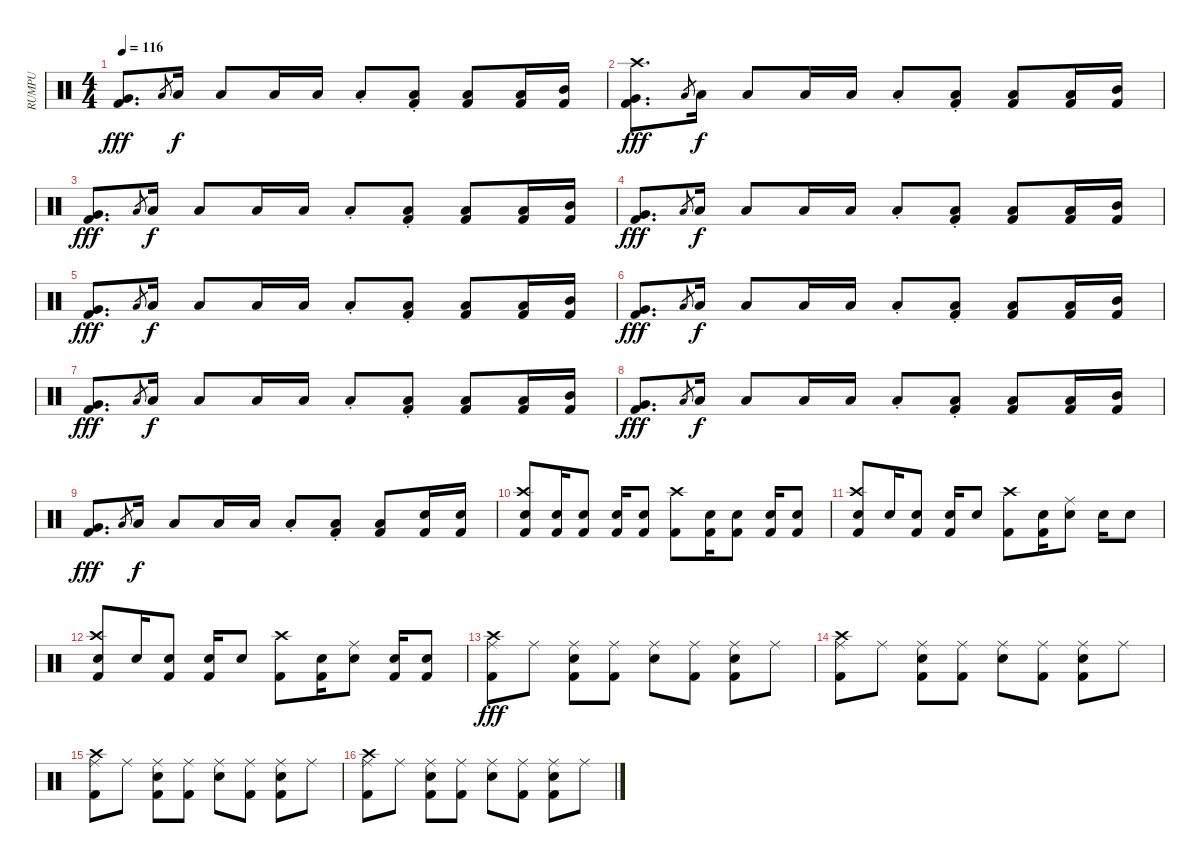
\track ("RUMPU" "RUMPU") {instrument percussion}
\staff {score}
\articulation defaults
\ts (4 4)
\tempo 116
\clef neutral
\ks c
("Very Low Tom (hit)" "Kick (hit) 2").8{d dy fff} "Low Floor Tom (hit)".8{gr} "Low Floor Tom (hit)".16{dy f} "Low Floor Tom (hit)".8 "Low Floor Tom (hit)".16 "Low Floor Tom (hit)".16 "Low Floor Tom (hit)"{st}.8 ("Low Floor Tom (hit)"{st} "Kick (hit) 2").8 ("Low Floor Tom (hit)" "Kick (hit) 2").8 ("Low Tom (hit)" "Kick (hit) 2").16 ("Mid Tom (hit)" "Kick (hit) 2").16 |
("Very Low Tom (hit)" "Kick (hit) 2" "Crash high (hit)").8{d dy fff} "Low Floor Tom (hit)".8{gr} "Low Floor Tom (hit)".16{dy f} "Low Floor Tom (hit)".8 "Low Floor Tom (hit)".16 "Low Floor Tom (hit)".16 "Low Floor Tom (hit)"{st}.8 ("Low Floor Tom (hit)"{st} "Kick (hit) 2").8 ("Low Floor Tom (hit)" "Kick (hit) 2").8 ("Low Tom (hit)" "Kick (hit) 2").16 ("Mid Tom (hit)" "Kick (hit) 2").16 |
("Very Low Tom (hit)" "Kick (hit) 2").8{d dy fff} "Low Floor Tom (hit)".8{gr} "Low Floor Tom (hit)".16{dy f} "Low Floor Tom (hit)".8 "Low Floor Tom (hit)".16 "Low Floor Tom (hit)".16 "Low Floor Tom (hit)"{st}.8 ("Low Floor Tom (hit)"{st} "Kick (hit) 2").8 ("Low Floor Tom (hit)" "Kick (hit) 2").8 ("Low Tom (hit)" "Kick (hit) 2").16 ("Mid Tom (hit)" "Kick (hit) 2").16 |
("Very Low Tom (hit)" "Kick (hit) 2").8{d dy fff} "Low Floor Tom (hit)".8{gr} "Low Floor Tom (hit)".16{dy f} "Low Floor Tom (hit)".8 "Low Floor Tom (hit)".16 "Low Floor Tom (hit)".16 "Low Floor Tom (hit)"{st}.8 ("Low Floor Tom (hit)"{st} "Kick (hit) 2").8 ("Low Floor Tom (hit)" "Kick (hit) 2").8 ("Low Tom (hit)" "Kick (hit) 2").16 ("Mid Tom (hit)" "Kick (hit) 2").16 |
("Very Low Tom (hit)" "Kick (hit) 2").8{d dy fff} "Low Floor Tom (hit)".8{gr} "Low Floor Tom (hit)".16{dy f} "Low Floor Tom (hit)".8 "Low Floor Tom (hit)".16 "Low Floor Tom (hit)".16 "Low Floor Tom (hit)"{st}.8 ("Low Floor Tom (hit)"{st} "Kick (hit) 2").8 ("Low Floor Tom (hit)" "Kick (hit) 2").8 ("Low Tom (hit)" "Kick (hit) 2").16 ("Mid Tom (hit)" "Kick (hit) 2").16 |
("Very Low Tom (hit)" "Kick (hit) 2").8{d dy fff} "Low Floor Tom (hit)".8{gr} "Low Floor Tom (hit)".16{dy f} "Low Floor Tom (hit)".8 "Low Floor Tom (hit)".16 "Low Floor Tom (hit)".16 "Low Floor Tom (hit)"{st}.8 ("Low Floor Tom (hit)"{st} "Kick (hit) 2").8 ("Low Floor Tom (hit)" "Kick (hit) 2").8 ("Low Tom (hit)" "Kick (hit) 2").16 ("Mid Tom (hit)" "Kick (hit) 2").16 |
("Very Low Tom (hit)" "Kick (hit) 2").8{d dy fff} "Low Floor Tom (hit)".8{gr} "Low Floor Tom (hit)".16{dy f} "Low Floor Tom (hit)".8 "Low Floor Tom (hit)".16 "Low Floor Tom (hit)".16 "Low Floor Tom (hit)"{st}.8 ("Low Floor Tom (hit)"{st} "Kick (hit) 2").8 ("Low Floor Tom (hit)" "Kick (hit) 2").8 ("Low Tom (hit)" "Kick (hit) 2").16 ("Mid Tom (hit)" "Kick (hit) 2").16 |
("Very Low Tom (hit)" "Kick (hit) 2").8{d dy fff} "Low Floor Tom (hit)".8{gr} "Low Floor Tom (hit)".16{dy f} "Low Floor Tom (hit)".8 "Low Floor Tom (hit)".16 "Low Floor Tom (hit)".16 "Low Floor Tom (hit)"{st}.8 ("Low Floor Tom (hit)"{st} "Kick (hit) 2").8 ("Low Floor Tom (hit)" "Kick (hit) 2").8 ("Low Tom (hit)" "Kick (hit) 2").16 ("Mid Tom (hit)" "Kick (hit) 2").16 |
("Very Low Tom (hit)" "Kick (hit) 2").8{d dy fff} "Low Floor Tom (hit)".8{gr} "Low Floor Tom (hit)".16{dy f} "Low Floor Tom (hit)".8 "Low Floor Tom (hit)".16 "Low Floor Tom (hit)".16 "Low Floor Tom (hit)"{st}.8 ("Low Floor Tom (hit)"{st} "Kick (hit) 2").8 ("Low Floor Tom (hit)" "Kick (hit) 2").8 ("Electric Snare (hit)" "Kick (hit) 2").16 ("Electric Snare (hit)" "Kick (hit) 2").16 |
("Electric Snare (hit)" "Crash high (hit)" "Kick (hit) 2").8 ("Electric Snare (hit)" "Kick (hit) 2").16 ("Electric Snare (hit)" "Kick (hit) 2").8 ("Electric Snare (hit)" "Kick (hit) 2").16 ("Electric Snare (hit)" "Kick (hit) 2").8 ("Crash high (hit)" "Kick (hit) 2").8 ("Electric Snare (hit)" "Kick (hit) 2").16 ("Electric Snare (hit)" "Kick (hit) 2").8 ("Electric Snare (hit)" "Kick (hit) 2").16 ("Electric Snare (hit)" "Kick (hit) 2").8 |
("Electric Snare (hit)" "Crash high (hit)" "Kick (hit) 2").8 "Electric Snare (hit)".16 ("Electric Snare (hit)" "Kick (hit) 2").8 ("Electric Snare (hit)" "Kick (hit) 2").16 "Electric Snare (hit)".8 ("Crash high (hit)" "Kick (hit) 2").8 ("Electric Snare (hit)" "Kick (hit) 2").16 ("Electric Snare (hit)" "Ride (middle)").8 "Electric Snare (hit)".16 "Electric Snare (hit)".8 |
("Electric Snare (hit)" "Crash high (hit)" "Kick (hit) 2").8 "Electric Snare (hit)".16 ("Electric Snare (hit)" "Kick (hit) 2").8 ("Electric Snare (hit)" "Kick (hit) 2").16 "Electric Snare (hit)".8 ("Crash high (hit)" "Kick (hit) 2").8 ("Electric Snare (hit)" "Kick (hit) 2").16 ("Electric Snare (hit)" "Ride (middle)").8 ("Electric Snare (hit)" "Kick (hit) 2").16 ("Electric Snare (hit)" "Kick (hit) 2").8 |
("Crash high (hit)" "Ride (middle)" "Kick (hit) 2").8{dy fff} "Ride (middle)".8 ("Electric Snare (hit)" "Ride (middle)" "Kick (hit) 2").8 ("Ride (middle)" "Kick (hit) 2").8 ("Electric Snare (hit)" "Ride (middle)").8 ("Ride (middle)" "Kick (hit) 2").8 ("Electric Snare (hit)" "Ride (middle)" "Kick (hit) 2").8 "Ride (middle)".8 |
("Crash high (hit)" "Ride (middle)" "Kick (hit) 2").8 "Ride (middle)".8 ("Electric Snare (hit)" "Ride (middle)" "Kick (hit) 2").8 ("Ride (middle)" "Kick (hit) 2").8 ("Electric Snare (hit)" "Ride (middle)").8 ("Ride (middle)" "Kick (hit) 2").8 ("Electric Snare (hit)" "Ride (middle)" "Kick (hit) 2").8 "Ride (middle)".8 |
("Crash high (hit)" "Ride (middle)" "Kick (hit) 2").8 "Ride (middle)".8 ("Electric Snare (hit)" "Ride (middle)" "Kick (hit) 2").8 ("Ride (middle)" "Kick (hit) 2").8 ("Electric Snare (hit)" "Ride (middle)").8 ("Ride (middle)" "Kick (hit) 2").8 ("Electric Snare (hit)" "Ride (middle)" "Kick (hit) 2").8 "Ride (middle)".8 |
("Crash high (hit)" "Ride (middle)" "Kick (hit) 2").8 "Ride (middle)".8 ("Electric Snare (hit)" "Ride (middle)" "Kick (hit) 2").8 ("Ride (middle)" "Kick (hit) 2").8 ("Electric Snare (hit)" "Ride (middle)").8 ("Ride (middle)" "Kick (hit) 2").8 ("Electric Snare (hit)" "Ride (middle)" "Kick (hit) 2").8 "Ride (middle)".8
